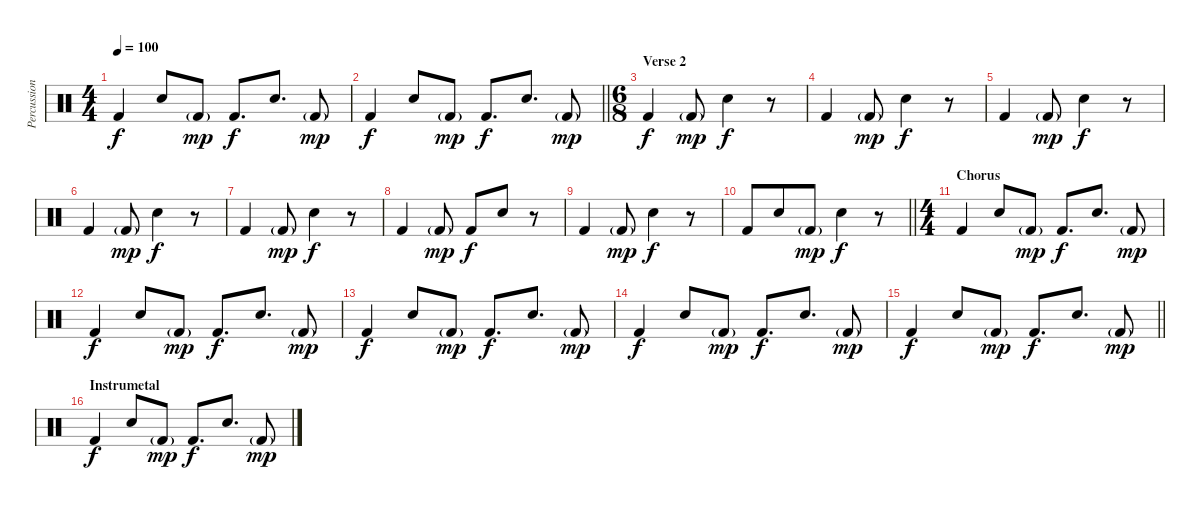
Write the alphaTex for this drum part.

\track ("Percussion" "Percussion") {instrument percussion}
\staff {score}
\articulation defaults
\ts (4 4)
\tempo 100
\clef neutral
\ks c "Kick (hit) 2".4{dy f} "Snare (hit) 2".8 "Kick (hit) 2"{g}.8{dy mp} "Kick (hit) 2".8{d dy f} "Snare (hit) 2".8{d} "Kick (hit) 2"{g}.8{dy mp}
|
\barLineRight lightlight "Kick (hit) 2".4{dy f} "Snare (hit) 2".8 "Kick (hit) 2"{g}.8{dy mp} "Kick (hit) 2".8{d dy f} "Snare (hit) 2".8{d} "Kick (hit) 2"{g}.8{dy mp}
|
\ts (6 8)
\section ("" "Verse 2")
"Kick (hit) 2".4{dy f} "Kick (hit) 2"{g}.8{dy mp} "Snare (hit) 2".4{dy f} r.8 |
"Kick (hit) 2".4 "Kick (hit) 2"{g}.8{dy mp} "Snare (hit) 2".4{dy f} r.8 |
"Kick (hit) 2".4 "Kick (hit) 2"{g}.8{dy mp} "Snare (hit) 2".4{dy f} r.8 |
"Kick (hit) 2".4 "Kick (hit) 2"{g}.8{dy mp} "Snare (hit) 2".4{dy f} r.8 |
"Kick (hit) 2".4 "Kick (hit) 2"{g}.8{dy mp} "Snare (hit) 2".4{dy f} r.8 |
"Kick (hit) 2".4 "Kick (hit) 2"{g}.8{dy mp} "Kick (hit) 2".8{dy f} "Snare (hit) 2".8 r.8 |
"Kick (hit) 2".4 "Kick (hit) 2"{g}.8{dy mp} "Snare (hit) 2".4{dy f} r.8 |
\barLineRight lightlight "Kick (hit) 2".8 "Snare (hit) 2".8 "Kick (hit) 2"{g}.8{dy mp} "Snare (hit) 2".4{dy f}
r.8 |
\ts (4 4)
\section ("" "Chorus")
"Kick (hit) 2".4 "Snare (hit) 2".8 "Kick (hit) 2"{g}.8{dy mp} "Kick (hit) 2".8{d dy f} "Snare (hit) 2".8{d} "Kick (hit) 2"{g}.8{dy mp} |
"Kick (hit) 2".4{dy f} "Snare (hit) 2".8 "Kick (hit) 2"{g}.8{dy mp} "Kick (hit) 2".8{d dy f} "Snare (hit) 2".8{d} "Kick (hit) 2"{g}.8{dy mp} |
"Kick (hit) 2".4{dy f} "Snare (hit) 2".8 "Kick (hit) 2"{g}.8{dy mp} "Kick (hit) 2".8{d dy f} "Snare (hit) 2".8{d} "Kick (hit) 2"{g}.8{dy mp} |
"Kick (hit) 2".4{dy f} "Snare (hit) 2".8 "Kick (hit) 2"{g}.8{dy mp} "Kick (hit) 2".8{d dy f} "Snare (hit) 2".8{d} "Kick (hit) 2"{g}.8{dy mp} |
\barLineRight lightlight "Kick (hit) 2".4{dy f} "Snare (hit) 2".8 "Kick (hit) 2"{g}.8{dy mp} "Kick (hit) 2".8{d dy f} "Snare (hit) 2".8{d} "Kick (hit) 2"{g}.8{dy mp}
|
\section ("" "Instrumetal")
"Kick (hit) 2".4{dy f} "Snare (hit) 2".8 "Kick (hit) 2"{g}.8{dy mp} "Kick (hit) 2".8{d dy f} "Snare (hit) 2".8{d} "Kick (hit) 2"{g}.8{dy mp}
